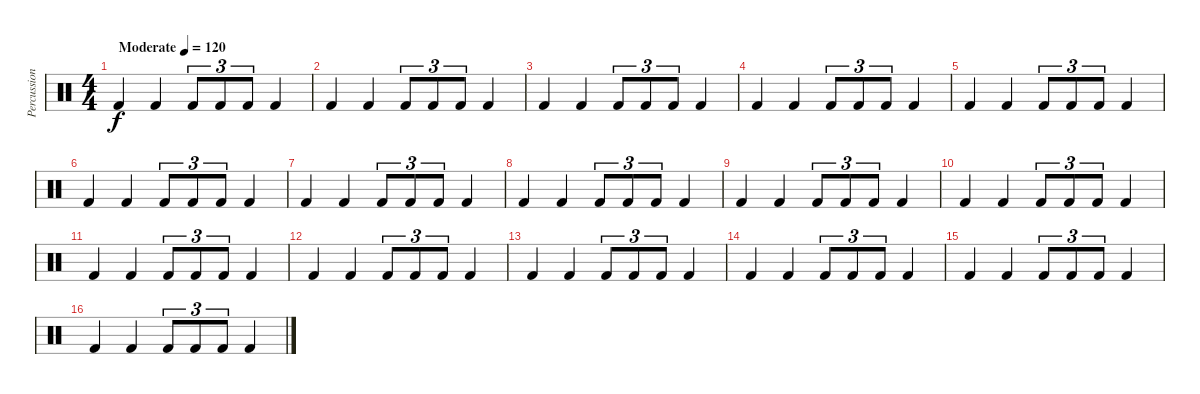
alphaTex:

\track ("Percussion" "Percussion") {instrument percussion}
\staff {score}
\articulation defaults
\ts (4 4)
\tempo (120 "Moderate")
\clef neutral
\ks c "Kick (hit) 2".4{dy f} "Kick (hit) 2".4 "Kick (hit) 2".8{tu (3 2)} "Kick (hit) 2".8{tu (3 2)} "Kick (hit) 2".8{tu (3 2)} "Kick (hit) 2".4
|
"Kick (hit) 2".4 "Kick (hit) 2".4 "Kick (hit) 2".8{tu (3 2)} "Kick (hit) 2".8{tu (3 2)} "Kick (hit) 2".8{tu (3 2)} "Kick (hit) 2".4 |
"Kick (hit) 2".4 "Kick (hit) 2".4 "Kick (hit) 2".8{tu (3 2)} "Kick (hit) 2".8{tu (3 2)} "Kick (hit) 2".8{tu (3 2)} "Kick (hit) 2".4 |
"Kick (hit) 2".4 "Kick (hit) 2".4 "Kick (hit) 2".8{tu (3 2)} "Kick (hit) 2".8{tu (3 2)} "Kick (hit) 2".8{tu (3 2)} "Kick (hit) 2".4 |
"Kick (hit) 2".4 "Kick (hit) 2".4 "Kick (hit) 2".8{tu (3 2)} "Kick (hit) 2".8{tu (3 2)} "Kick (hit) 2".8{tu (3 2)} "Kick (hit) 2".4 |
"Kick (hit) 2".4 "Kick (hit) 2".4 "Kick (hit) 2".8{tu (3 2)} "Kick (hit) 2".8{tu (3 2)} "Kick (hit) 2".8{tu (3 2)} "Kick (hit) 2".4 |
"Kick (hit) 2".4 "Kick (hit) 2".4 "Kick (hit) 2".8{tu (3 2)} "Kick (hit) 2".8{tu (3 2)} "Kick (hit) 2".8{tu (3 2)} "Kick (hit) 2".4 |
"Kick (hit) 2".4 "Kick (hit) 2".4 "Kick (hit) 2".8{tu (3 2)} "Kick (hit) 2".8{tu (3 2)} "Kick (hit) 2".8{tu (3 2)} "Kick (hit) 2".4 |
"Kick (hit) 2".4 "Kick (hit) 2".4 "Kick (hit) 2".8{tu (3 2)} "Kick (hit) 2".8{tu (3 2)} "Kick (hit) 2".8{tu (3 2)} "Kick (hit) 2".4 |
"Kick (hit) 2".4 "Kick (hit) 2".4 "Kick (hit) 2".8{tu (3 2)} "Kick (hit) 2".8{tu (3 2)} "Kick (hit) 2".8{tu (3 2)} "Kick (hit) 2".4 |
"Kick (hit) 2".4 "Kick (hit) 2".4 "Kick (hit) 2".8{tu (3 2)} "Kick (hit) 2".8{tu (3 2)} "Kick (hit) 2".8{tu (3 2)} "Kick (hit) 2".4 |
"Kick (hit) 2".4 "Kick (hit) 2".4 "Kick (hit) 2".8{tu (3 2)} "Kick (hit) 2".8{tu (3 2)} "Kick (hit) 2".8{tu (3 2)} "Kick (hit) 2".4 |
"Kick (hit) 2".4 "Kick (hit) 2".4 "Kick (hit) 2".8{tu (3 2)} "Kick (hit) 2".8{tu (3 2)} "Kick (hit) 2".8{tu (3 2)} "Kick (hit) 2".4 |
"Kick (hit) 2".4 "Kick (hit) 2".4 "Kick (hit) 2".8{tu (3 2)} "Kick (hit) 2".8{tu (3 2)} "Kick (hit) 2".8{tu (3 2)} "Kick (hit) 2".4 |
"Kick (hit) 2".4 "Kick (hit) 2".4 "Kick (hit) 2".8{tu (3 2)} "Kick (hit) 2".8{tu (3 2)} "Kick (hit) 2".8{tu (3 2)} "Kick (hit) 2".4 |
"Kick (hit) 2".4 "Kick (hit) 2".4 "Kick (hit) 2".8{tu (3 2)} "Kick (hit) 2".8{tu (3 2)} "Kick (hit) 2".8{tu (3 2)} "Kick (hit) 2".4
